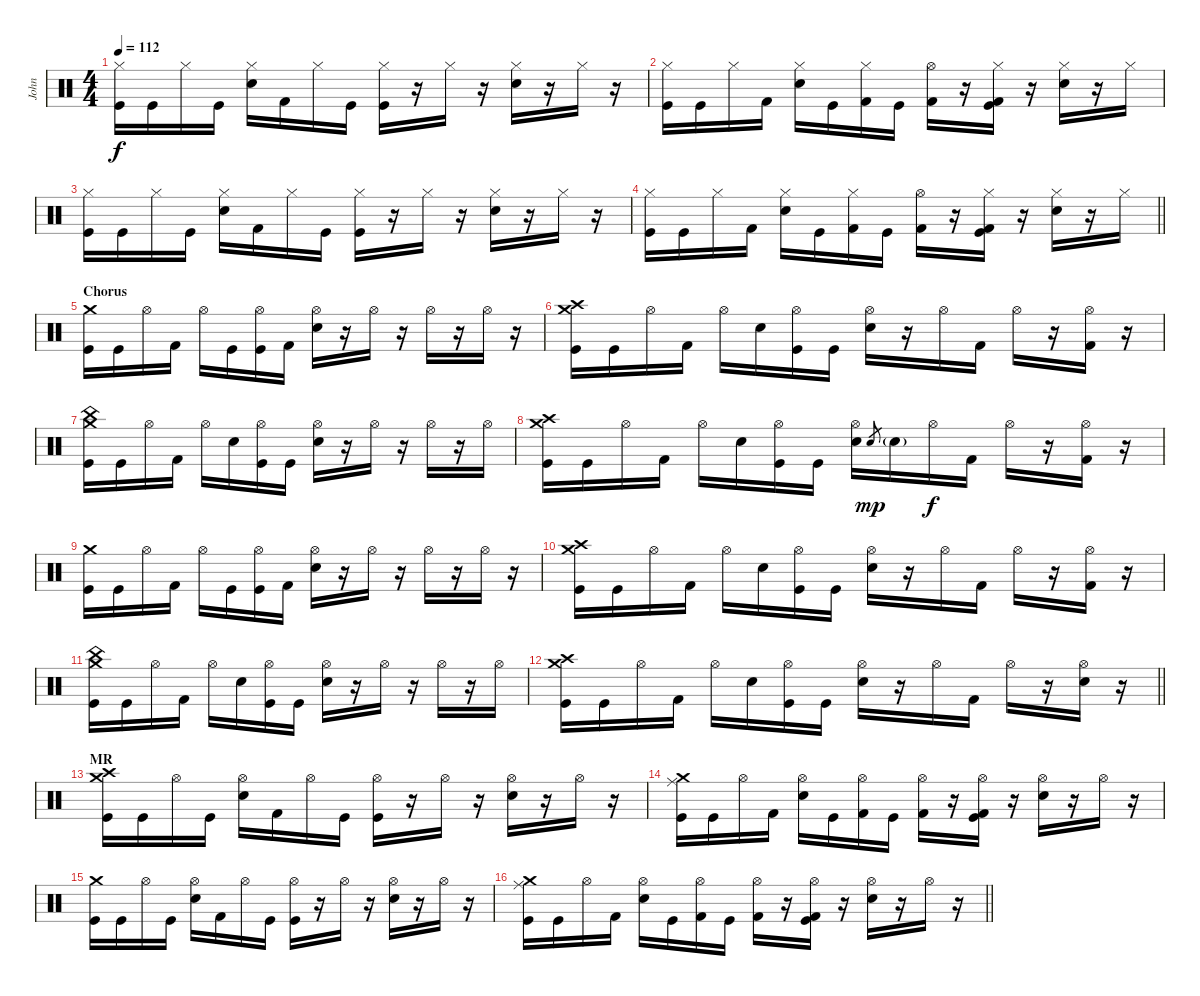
\track ("John" "John") {instrument percussion}
\staff {score}
\articulation defaults
\ts (4 4)
\tempo 112
\clef neutral
\ks c
("Hi-Hat (closed)" "Kick (hit)").16{dy f} "Kick (hit)".16 "Hi-Hat (closed)".16 "Kick (hit)".16 ("Hi-Hat (closed)" "Electric Snare (hit)").16 "Kick (hit) 2".16 "Hi-Hat (closed)".16 "Kick (hit)".16 ("Hi-Hat (closed)" "Kick (hit)").16 r.16 "Hi-Hat (closed)".16 r.16 ("Hi-Hat (closed)" "Electric Snare (hit)").16 r.16 "Hi-Hat (closed)".16 r.16 |
("Hi-Hat (closed)" "Kick (hit)").16 "Kick (hit)".16 "Hi-Hat (closed)".16 "Kick (hit) 2".16 ("Hi-Hat (closed)" "Electric Snare (hit)").16 "Kick (hit)".16 ("Hi-Hat (closed)" "Kick (hit) 2").16 "Kick (hit)".16 ("Hi-Hat (open)" "Kick (hit) 2").16 r.16 ("Hi-Hat (closed)" "Kick (hit) 2" "Kick (hit)").16 r.16 ("Hi-Hat (closed)" "Electric Snare (hit)").16 r.16 "Hi-Hat (closed)".16 |
("Hi-Hat (closed)" "Kick (hit)").16 "Kick (hit)".16 "Hi-Hat (closed)".16 "Kick (hit)".16 ("Hi-Hat (closed)" "Electric Snare (hit)").16 "Kick (hit) 2".16 "Hi-Hat (closed)".16 "Kick (hit)".16 ("Hi-Hat (closed)" "Kick (hit)").16 r.16 "Hi-Hat (closed)".16 r.16 ("Hi-Hat (closed)" "Electric Snare (hit)").16 r.16 "Hi-Hat (closed)".16 r.16 |
\barLineRight lightlight
("Hi-Hat (closed)" "Kick (hit)").16 "Kick (hit)".16 "Hi-Hat (closed)".16 "Kick (hit) 2".16 ("Hi-Hat (closed)" "Electric Snare (hit)").16 "Kick (hit)".16 ("Hi-Hat (closed)" "Kick (hit) 2").16 "Kick (hit)".16 ("Hi-Hat (open)" "Kick (hit) 2").16 r.16 ("Hi-Hat (closed)" "Kick (hit) 2" "Kick (hit)").16 r.16 ("Hi-Hat (closed)" "Electric Snare (hit)").16 r.16 "Hi-Hat (closed)".16 |
\section ("" "Chorus")
("Crash medium (hit)" "Kick (hit)").16 "Kick (hit)".16 "Hi-Hat (open)".16 "Kick (hit) 2".16 "Hi-Hat (open)".16 "Kick (hit)".16 ("Hi-Hat (open)" "Kick (hit)").16 "Kick (hit) 2".16 ("Hi-Hat (open)" "Electric Snare (hit)").16 r.16 "Hi-Hat (open)".16 r.16 "Hi-Hat (open)".16 r.16 "Hi-Hat (open)".16 r.16 |
("Crash high (hit)" "Crash medium (hit)" "Kick (hit)").16 "Kick (hit)".16 "Hi-Hat (open)".16 "Kick (hit) 2".16 "Hi-Hat (open)".16 "Electric Snare (hit)".16 ("Hi-Hat (open)" "Kick (hit)").16 "Kick (hit)".16 ("Hi-Hat (open)" "Electric Snare (hit)").16 r.16 "Hi-Hat (open)".16 "Kick (hit) 2".16 "Hi-Hat (open)".16 r.16 ("Hi-Hat (open)" "Kick (hit) 2").16 r.16 |
("Crash medium (hit)" "China (hit)" "Kick (hit)").16 "Kick (hit)".16 "Hi-Hat (open)".16 "Kick (hit) 2".16 "Hi-Hat (open)".16 "Electric Snare (hit)".16 ("Hi-Hat (open)" "Kick (hit)").16 "Kick (hit)".16 ("Hi-Hat (open)" "Electric Snare (hit)").16 r.16 "Hi-Hat (open)".16 r.16 "Hi-Hat (open)".16 r.16 "Hi-Hat (open)".16 |
("Crash high (hit)" "Crash medium (hit)" "Kick (hit)").16 "Kick (hit)".16 "Hi-Hat (open)".16 "Kick (hit) 2".16 "Hi-Hat (open)".16 "Electric Snare (hit)".16 ("Hi-Hat (open)" "Kick (hit)").16 "Kick (hit)".16 ("Hi-Hat (open)" "Electric Snare (hit)").16 "Electric Snare (hit)".8{gr dy mp} "Electric Snare (hit)"{g}.16 "Hi-Hat (open)".16{dy f} "Kick (hit) 2".16 "Hi-Hat (open)".16 r.16 ("Hi-Hat (open)" "Kick (hit) 2").16 r.16 |
("Crash medium (hit)" "Kick (hit)").16 "Kick (hit)".16 "Hi-Hat (open)".16 "Kick (hit) 2".16 "Hi-Hat (open)".16 "Kick (hit)".16 ("Hi-Hat (open)" "Kick (hit)").16 "Kick (hit) 2".16 ("Hi-Hat (open)" "Electric Snare (hit)").16 r.16 "Hi-Hat (open)".16 r.16 "Hi-Hat (open)".16 r.16 "Hi-Hat (open)".16 r.16 |
("Crash high (hit)" "Crash medium (hit)" "Kick (hit)").16 "Kick (hit)".16 "Hi-Hat (open)".16 "Kick (hit) 2".16 "Hi-Hat (open)".16 "Electric Snare (hit)".16 ("Hi-Hat (open)" "Kick (hit)").16 "Kick (hit)".16 ("Hi-Hat (open)" "Electric Snare (hit)").16 r.16 "Hi-Hat (open)".16 "Kick (hit) 2".16 "Hi-Hat (open)".16 r.16 ("Hi-Hat (open)" "Kick (hit) 2").16 r.16 |
("Crash medium (hit)" "China (hit)" "Kick (hit)").16 "Kick (hit)".16 "Hi-Hat (open)".16 "Kick (hit) 2".16 "Hi-Hat (open)".16 "Electric Snare (hit)".16 ("Hi-Hat (open)" "Kick (hit)").16 "Kick (hit)".16 ("Hi-Hat (open)" "Electric Snare (hit)").16 r.16 "Hi-Hat (open)".16 r.16 "Hi-Hat (open)".16 r.16 "Hi-Hat (open)".16 |
\barLineRight lightlight
("Crash high (hit)" "Crash medium (hit)" "Kick (hit)").16 "Kick (hit)".16 "Hi-Hat (open)".16 "Kick (hit) 2".16 "Hi-Hat (open)".16 "Electric Snare (hit)".16 ("Hi-Hat (open)" "Kick (hit)").16 "Kick (hit)".16 ("Hi-Hat (open)" "Electric Snare (hit)").16 r.16 "Hi-Hat (open)".16 "Kick (hit) 2".16 "Hi-Hat (open)".16 r.16 ("Hi-Hat (open)" "Electric Snare (hit)").16 r.16 |
\section ("" "MR")
("Crash medium (hit)" "Crash high (hit)" "Kick (hit)").16 "Kick (hit)".16 "Hi-Hat (open)".16 "Kick (hit)".16 ("Hi-Hat (open)" "Electric Snare (hit)").16 "Kick (hit) 2".16 "Hi-Hat (open)".16 "Kick (hit)".16 ("Hi-Hat (open)" "Kick (hit)").16 r.16 "Hi-Hat (open)".16 r.16 ("Hi-Hat (open)" "Electric Snare (hit)").16 r.16 "Hi-Hat (open)".16 r.16 |
("Crash medium (hit)" "Ride (middle)" "Kick (hit)").16 "Kick (hit)".16 "Hi-Hat (open)".16 "Kick (hit) 2".16 ("Hi-Hat (open)" "Electric Snare (hit)").16 "Kick (hit)".16 ("Hi-Hat (open)" "Kick (hit) 2").16 "Kick (hit)".16 ("Hi-Hat (open)" "Kick (hit) 2").16 r.16 ("Hi-Hat (open)" "Kick (hit)" "Kick (hit) 2").16 r.16 ("Hi-Hat (open)" "Electric Snare (hit)").16 r.16 "Hi-Hat (open)".16 r.16 |
("Crash medium (hit)" "Kick (hit)").16 "Kick (hit)".16 "Hi-Hat (open)".16 "Kick (hit)".16 ("Hi-Hat (open)" "Electric Snare (hit)").16 "Kick (hit) 2".16 "Hi-Hat (open)".16 "Kick (hit)".16 ("Hi-Hat (open)" "Kick (hit)").16 r.16 "Hi-Hat (open)".16 r.16 ("Hi-Hat (open)" "Electric Snare (hit)").16 r.16 "Hi-Hat (open)".16 r.16 |
\barLineRight lightlight
("Crash medium (hit)" "Ride (middle)" "Kick (hit)").16 "Kick (hit)".16 "Hi-Hat (open)".16 "Kick (hit) 2".16 ("Hi-Hat (open)" "Electric Snare (hit)").16 "Kick (hit)".16 ("Hi-Hat (open)" "Kick (hit) 2").16 "Kick (hit)".16 ("Hi-Hat (open)" "Kick (hit) 2").16 r.16 ("Hi-Hat (open)" "Kick (hit)" "Kick (hit) 2").16 r.16 ("Hi-Hat (open)" "Electric Snare (hit)").16 r.16 "Hi-Hat (open)".16 r.16
